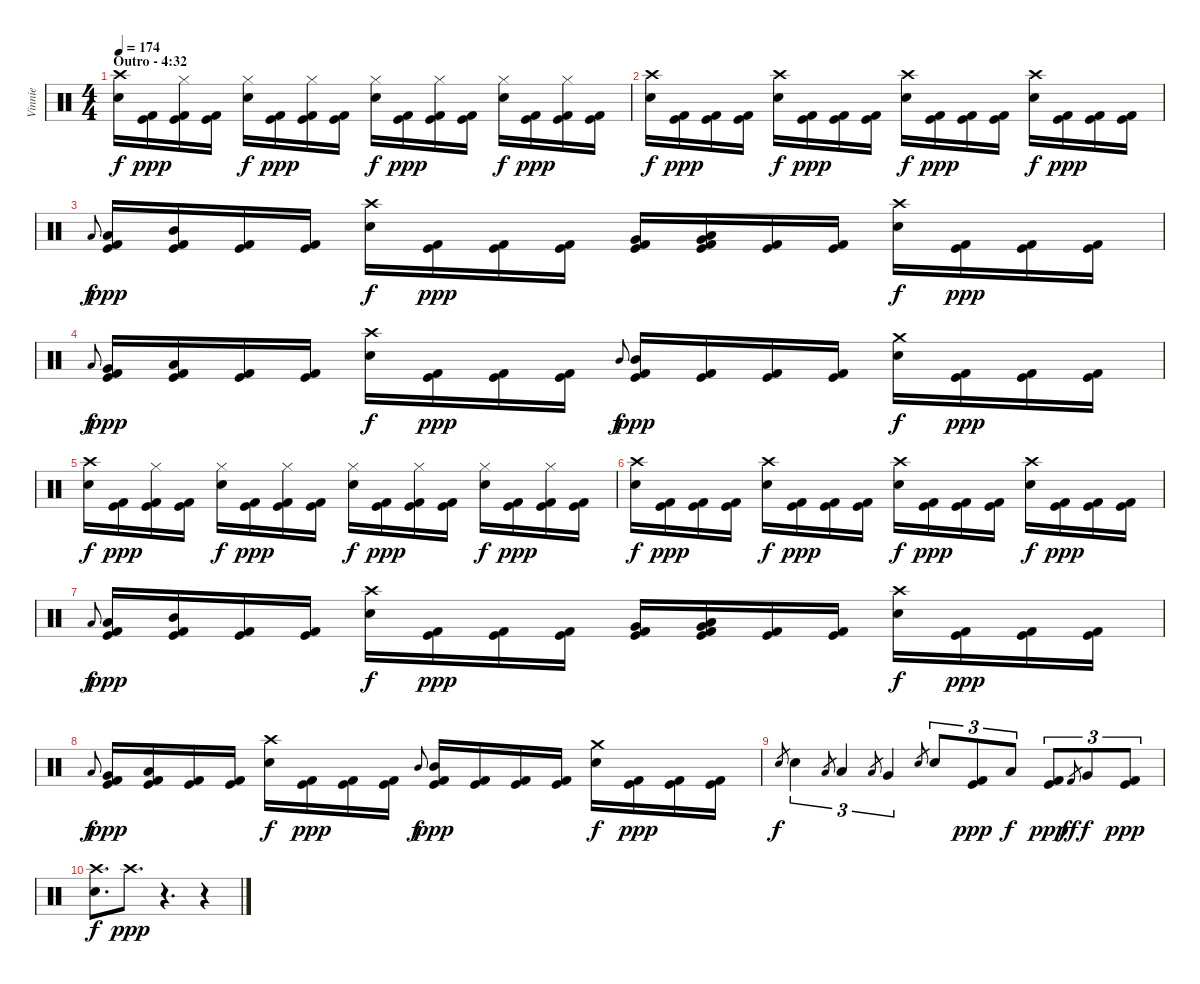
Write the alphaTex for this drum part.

\track ("Vinnie" "Vinnie") {instrument percussion}
\staff {score}
\articulation defaults
\ts (4 4)
\section ("" "Outro - 4:32")
\tempo 174
\clef neutral
\ks c
("Crash high (hit)" "Electric Snare (hit)").16{dy f} ("Kick (hit)" "Kick (hit) 2").16{dy ppp} ("Hi-Hat (closed)" "Kick (hit)" "Kick (hit) 2").16 ("Kick (hit)" "Kick (hit) 2").16 ("Hi-Hat (closed)" "Electric Snare (hit)").16{dy f} ("Kick (hit)" "Kick (hit) 2").16{dy ppp} ("Hi-Hat (closed)" "Kick (hit)" "Kick (hit) 2").16 ("Kick (hit)" "Kick (hit) 2").16 ("Hi-Hat (closed)" "Electric Snare (hit)").16{dy f} ("Kick (hit)" "Kick (hit) 2").16{dy ppp} ("Hi-Hat (closed)" "Kick (hit)" "Kick (hit) 2").16 ("Kick (hit)" "Kick (hit) 2").16 ("Hi-Hat (closed)" "Electric Snare (hit)").16{dy f} ("Kick (hit)" "Kick (hit) 2").16{dy ppp} ("Hi-Hat (closed)" "Kick (hit)" "Kick (hit) 2").16 ("Kick (hit)" "Kick (hit) 2").16 |
("Crash high (hit)" "Electric Snare (hit)").16{dy f} ("Kick (hit)" "Kick (hit) 2").16{dy ppp} ("Kick (hit)" "Kick (hit) 2").16 ("Kick (hit)" "Kick (hit) 2").16 ("Crash high (hit)" "Electric Snare (hit)").16{dy f} ("Kick (hit)" "Kick (hit) 2").16{dy ppp} ("Kick (hit)" "Kick (hit) 2").16 ("Kick (hit)" "Kick (hit) 2").16 ("Crash high (hit)" "Electric Snare (hit)").16{dy f} ("Kick (hit)" "Kick (hit) 2").16{dy ppp} ("Kick (hit)" "Kick (hit) 2").16 ("Kick (hit)" "Kick (hit) 2").16 ("Crash high (hit)" "Electric Snare (hit)").16{dy f} ("Kick (hit)" "Kick (hit) 2").16{dy ppp} ("Kick (hit)" "Kick (hit) 2").16 ("Kick (hit)" "Kick (hit) 2").16 |
"Low Tom (hit)".8{gr onbeat dy f} ("Low Tom (hit)" "Kick (hit)" "Kick (hit) 2").16{dy ppp} ("Mid Tom (hit)" "Kick (hit)" "Kick (hit) 2").16 ("Kick (hit)" "Kick (hit) 2").16 ("Kick (hit)" "Kick (hit) 2").16 ("Crash high (hit)" "Electric Snare (hit)").16{dy f} ("Kick (hit)" "Kick (hit) 2").16{dy ppp} ("Kick (hit)" "Kick (hit) 2").16 ("Kick (hit)" "Kick (hit) 2").16 ("Very Low Tom (hit)" "Kick (hit)" "Kick (hit) 2").16 ("Low Tom (hit)" "Very Low Tom (hit)" "Kick (hit)" "Kick (hit) 2").16{bd 240} ("Kick (hit)" "Kick (hit) 2").16 ("Kick (hit)" "Kick (hit) 2").16 ("Crash high (hit)" "Electric Snare (hit)").16{dy f} ("Kick (hit)" "Kick (hit) 2").16{dy ppp} ("Kick (hit)" "Kick (hit) 2").16 ("Kick (hit)" "Kick (hit) 2").16 |
"Low Tom (hit)".8{gr onbeat dy f} ("Very Low Tom (hit)" "Kick (hit)" "Kick (hit) 2").16{dy ppp} ("Low Tom (hit)" "Kick (hit)" "Kick (hit) 2").16 ("Kick (hit)" "Kick (hit) 2").16 ("Kick (hit)" "Kick (hit) 2").16 ("Crash high (hit)" "Electric Snare (hit)").16{dy f} ("Kick (hit)" "Kick (hit) 2").16{dy ppp} ("Kick (hit)" "Kick (hit) 2").16 ("Kick (hit)" "Kick (hit) 2").16 "Mid Tom (hit)".8{gr onbeat dy f} ("Mid Tom (hit)" "Kick (hit)" "Kick (hit) 2").16{dy ppp} ("Kick (hit)" "Kick (hit) 2").16 ("Kick (hit)" "Kick (hit) 2").16 ("Kick (hit)" "Kick (hit) 2").16 ("Crash medium (hit)" "Electric Snare (hit)").16{dy f} ("Kick (hit)" "Kick (hit) 2").16{dy ppp} ("Kick (hit)" "Kick (hit) 2").16 ("Kick (hit)" "Kick (hit) 2").16 |
("Crash high (hit)" "Electric Snare (hit)").16{dy f} ("Kick (hit)" "Kick (hit) 2").16{dy ppp} ("Hi-Hat (closed)" "Kick (hit)" "Kick (hit) 2").16 ("Kick (hit)" "Kick (hit) 2").16 ("Hi-Hat (closed)" "Electric Snare (hit)").16{dy f} ("Kick (hit)" "Kick (hit) 2").16{dy ppp} ("Hi-Hat (closed)" "Kick (hit)" "Kick (hit) 2").16 ("Kick (hit)" "Kick (hit) 2").16 ("Hi-Hat (closed)" "Electric Snare (hit)").16{dy f} ("Kick (hit)" "Kick (hit) 2").16{dy ppp} ("Hi-Hat (closed)" "Kick (hit)" "Kick (hit) 2").16 ("Kick (hit)" "Kick (hit) 2").16 ("Hi-Hat (closed)" "Electric Snare (hit)").16{dy f} ("Kick (hit)" "Kick (hit) 2").16{dy ppp} ("Hi-Hat (closed)" "Kick (hit)" "Kick (hit) 2").16 ("Kick (hit)" "Kick (hit) 2").16 |
("Crash high (hit)" "Electric Snare (hit)").16{dy f} ("Kick (hit)" "Kick (hit) 2").16{dy ppp} ("Kick (hit)" "Kick (hit) 2").16 ("Kick (hit)" "Kick (hit) 2").16 ("Crash high (hit)" "Electric Snare (hit)").16{dy f} ("Kick (hit)" "Kick (hit) 2").16{dy ppp} ("Kick (hit)" "Kick (hit) 2").16 ("Kick (hit)" "Kick (hit) 2").16 ("Crash high (hit)" "Electric Snare (hit)").16{dy f} ("Kick (hit)" "Kick (hit) 2").16{dy ppp} ("Kick (hit)" "Kick (hit) 2").16 ("Kick (hit)" "Kick (hit) 2").16 ("Crash high (hit)" "Electric Snare (hit)").16{dy f} ("Kick (hit)" "Kick (hit) 2").16{dy ppp} ("Kick (hit)" "Kick (hit) 2").16 ("Kick (hit)" "Kick (hit) 2").16 |
"Low Tom (hit)".8{gr onbeat dy f} ("Low Tom (hit)" "Kick (hit)" "Kick (hit) 2").16{dy ppp} ("Mid Tom (hit)" "Kick (hit)" "Kick (hit) 2").16 ("Kick (hit)" "Kick (hit) 2").16 ("Kick (hit)" "Kick (hit) 2").16 ("Crash high (hit)" "Electric Snare (hit)").16{dy f} ("Kick (hit)" "Kick (hit) 2").16{dy ppp} ("Kick (hit)" "Kick (hit) 2").16 ("Kick (hit)" "Kick (hit) 2").16 ("Very Low Tom (hit)" "Kick (hit)" "Kick (hit) 2").16 ("Low Tom (hit)" "Very Low Tom (hit)" "Kick (hit)" "Kick (hit) 2").16{bd 240} ("Kick (hit)" "Kick (hit) 2").16 ("Kick (hit)" "Kick (hit) 2").16 ("Crash high (hit)" "Electric Snare (hit)").16{dy f} ("Kick (hit)" "Kick (hit) 2").16{dy ppp} ("Kick (hit)" "Kick (hit) 2").16 ("Kick (hit)" "Kick (hit) 2").16 |
"Low Tom (hit)".8{gr onbeat dy f} ("Very Low Tom (hit)" "Kick (hit)" "Kick (hit) 2").16{dy ppp} ("Low Tom (hit)" "Kick (hit)" "Kick (hit) 2").16 ("Kick (hit)" "Kick (hit) 2").16 ("Kick (hit)" "Kick (hit) 2").16 ("Crash high (hit)" "Electric Snare (hit)").16{dy f} ("Kick (hit)" "Kick (hit) 2").16{dy ppp} ("Kick (hit)" "Kick (hit) 2").16 ("Kick (hit)" "Kick (hit) 2").16 "Mid Tom (hit)".8{gr onbeat dy f} ("Mid Tom (hit)" "Kick (hit)" "Kick (hit) 2").16{dy ppp} ("Kick (hit)" "Kick (hit) 2").16 ("Kick (hit)" "Kick (hit) 2").16 ("Kick (hit)" "Kick (hit) 2").16 ("Crash medium (hit)" "Electric Snare (hit)").16{dy f} ("Kick (hit)" "Kick (hit) 2").16{dy ppp} ("Kick (hit)" "Kick (hit) 2").16 ("Kick (hit)" "Kick (hit) 2").16 |
"Electric Snare (hit)".8{gr dy f} "Electric Snare (hit)".4{tu (3 2)} "Low Tom (hit)".8{gr} "Low Tom (hit)".4{tu (3 2)} "Low Tom (hit)".8{gr} "Very Low Tom (hit)".4{tu (3 2)} "Electric Snare (hit)".8{gr} "Electric Snare (hit)".8{tu (3 2)} ("Kick (hit)" "Kick (hit) 2").8{tu (3 2) dy ppp} "Low Tom (hit)".8{tu (3 2) dy f} ("Kick (hit)" "Kick (hit) 2").8{tu (3 2) dy ppp} "Kick (hit) 2".8{gr dy ff} "Very Low Tom (hit)".8{tu (3 2) dy f} ("Kick (hit)" "Kick (hit) 2").8{tu (3 2) dy ppp} |
("Crash high (hit)" "Electric Snare (hit)").8{d dy f} "Crash high (hit)".8{d dy ppp} r.4{d} r.4
